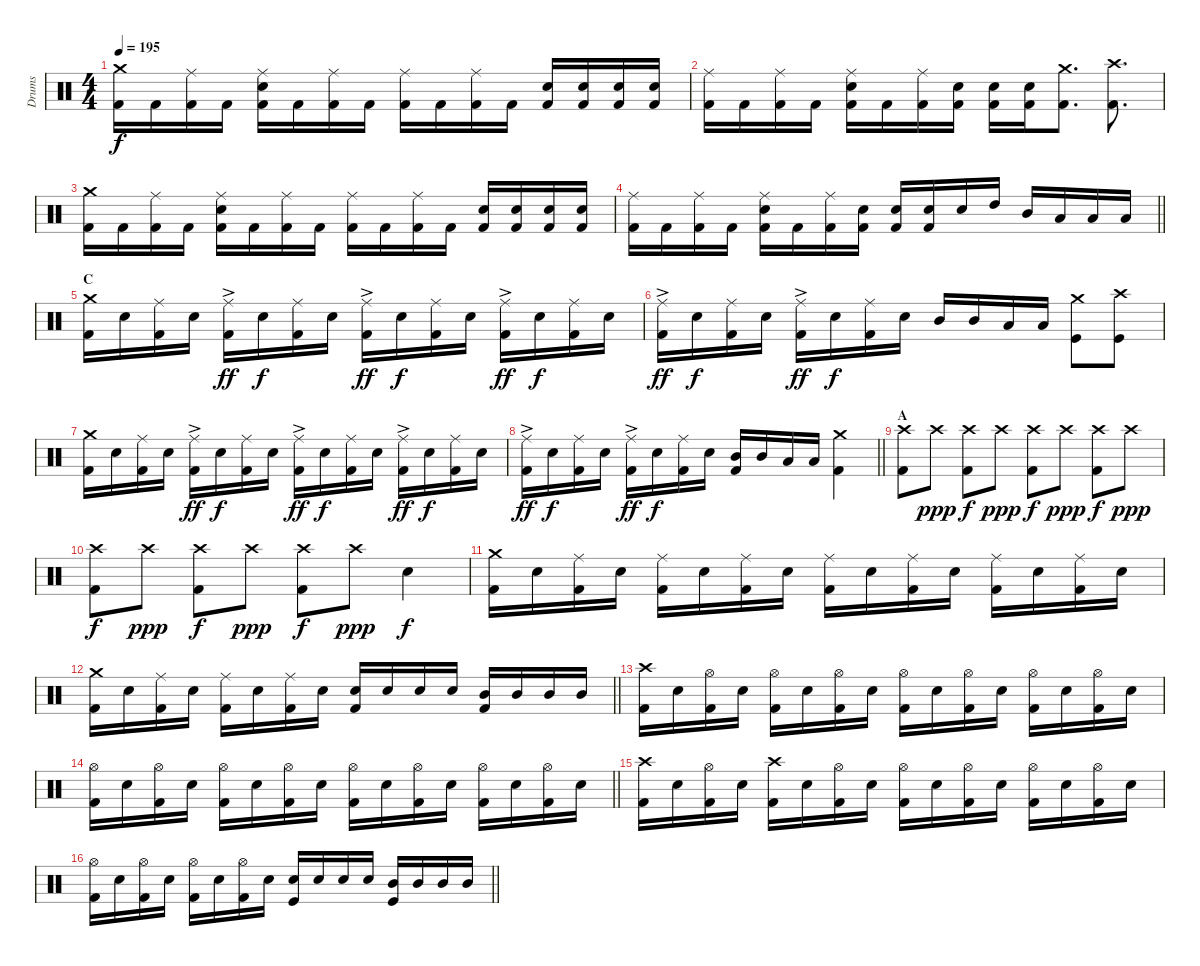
\track ("Drums" "Drums") {instrument percussion}
\staff {score}
\articulation defaults
\ts (4 4)
\tempo 195
\clef neutral
\ks c
("Crash medium (hit)" "Kick (hit) 2").16{dy f} "Kick (hit) 2".16 ("Ride (middle)" "Kick (hit) 2").16 "Kick (hit) 2".16 ("Ride (middle)" "Snare (hit) 2" "Kick (hit) 2").16 "Kick (hit) 2".16 ("Ride (middle)" "Kick (hit) 2").16 "Kick (hit) 2".16 ("Ride (middle)" "Kick (hit) 2").16 "Kick (hit) 2".16 ("Ride (middle)" "Kick (hit) 2").16 "Kick (hit) 2".16 ("Snare (hit) 2" "Kick (hit) 2").16 ("Snare (hit) 2" "Kick (hit) 2").16 ("Snare (hit) 2" "Kick (hit) 2").16 ("Snare (hit) 2" "Kick (hit) 2").16 |
("Ride (middle)" "Kick (hit) 2").16 "Kick (hit) 2".16 ("Ride (middle)" "Kick (hit) 2").16 "Kick (hit) 2".16 ("Ride (middle)" "Snare (hit) 2" "Kick (hit) 2").16 "Kick (hit) 2".16 ("Ride (middle)" "Kick (hit) 2").16 ("Snare (hit) 2" "Kick (hit) 2").16 ("Snare (hit) 2" "Kick (hit) 2").16 ("Snare (hit) 2" "Kick (hit) 2").16 ("Crash medium (hit)" "Kick (hit) 2").8{d} ("Crash high (hit)" "Kick (hit) 2").8{d} |
("Crash medium (hit)" "Kick (hit) 2").16 "Kick (hit) 2".16 ("Ride (middle)" "Kick (hit) 2").16 "Kick (hit) 2".16 ("Ride (middle)" "Snare (hit) 2" "Kick (hit) 2").16 "Kick (hit) 2".16 ("Ride (middle)" "Kick (hit) 2").16 "Kick (hit) 2".16 ("Ride (middle)" "Kick (hit) 2").16 "Kick (hit) 2".16 ("Ride (middle)" "Kick (hit) 2").16 "Kick (hit) 2".16 ("Snare (hit) 2" "Kick (hit) 2").16 ("Snare (hit) 2" "Kick (hit) 2").16 ("Snare (hit) 2" "Kick (hit) 2").16 ("Snare (hit) 2" "Kick (hit) 2").16 |
\barLineRight lightlight
("Ride (middle)" "Kick (hit) 2").16 "Kick (hit) 2".16 ("Ride (middle)" "Kick (hit) 2").16 "Kick (hit) 2".16 ("Ride (middle)" "Snare (hit) 2" "Kick (hit) 2").16 "Kick (hit) 2".16 ("Ride (middle)" "Kick (hit) 2").16 ("Snare (hit) 2" "Kick (hit) 2").16 ("Snare (hit) 2" "Kick (hit) 2").16 ("Snare (hit) 2" "Kick (hit) 2").16 "Snare (hit) 2".16 "High Tom (hit)".16 "Mid Tom (hit)".16 "Low Tom (hit)".16 "Low Tom (hit)".16 "Low Tom (hit)".16 |
\section ("" "C")
("Crash medium (hit)" "Kick (hit) 2").16 "Snare (hit) 2".16 ("Ride (middle)" "Kick (hit) 2").16 "Snare (hit) 2".16 ("Ride (middle)"{ac} "Kick (hit) 2").16{dy ff} "Snare (hit) 2".16{dy f} ("Ride (middle)" "Kick (hit) 2").16 "Snare (hit) 2".16 ("Ride (middle)"{ac} "Kick (hit) 2").16{dy ff} "Snare (hit) 2".16{dy f} ("Ride (middle)" "Kick (hit) 2").16 "Snare (hit) 2".16 ("Ride (middle)"{ac} "Kick (hit) 2").16{dy ff} "Snare (hit) 2".16{dy f} ("Ride (middle)" "Kick (hit) 2").16 "Snare (hit) 2".16 |
("Ride (middle)"{ac} "Kick (hit) 2").16{dy ff} "Snare (hit) 2".16{dy f} ("Ride (middle)" "Kick (hit) 2").16 "Snare (hit) 2".16 ("Ride (middle)"{ac} "Kick (hit) 2").16{dy ff} "Snare (hit) 2".16{dy f} ("Ride (middle)" "Kick (hit) 2").16 "Snare (hit) 2".16 "Mid Tom (hit)".16 "Mid Tom (hit)".16 "Low Tom (hit)".16 "Low Tom (hit)".16 ("Crash medium (hit)" "Kick (hit)").8 ("Crash high (hit)" "Kick (hit)").8 |
("Crash medium (hit)" "Kick (hit) 2").16 "Snare (hit) 2".16 ("Ride (middle)" "Kick (hit) 2").16 "Snare (hit) 2".16 ("Ride (middle)"{ac} "Kick (hit) 2").16{dy ff} "Snare (hit) 2".16{dy f} ("Ride (middle)" "Kick (hit) 2").16 "Snare (hit) 2".16 ("Ride (middle)"{ac} "Kick (hit) 2").16{dy ff} "Snare (hit) 2".16{dy f} ("Ride (middle)" "Kick (hit) 2").16 "Snare (hit) 2".16 ("Ride (middle)"{ac} "Kick (hit) 2").16{dy ff} "Snare (hit) 2".16{dy f} ("Ride (middle)" "Kick (hit) 2").16 "Snare (hit) 2".16 |
\barLineRight lightlight
("Ride (middle)"{ac} "Kick (hit) 2").16{dy ff} "Snare (hit) 2".16{dy f} ("Ride (middle)" "Kick (hit) 2").16 "Snare (hit) 2".16 ("Ride (middle)"{ac} "Kick (hit) 2").16{dy ff} "Snare (hit) 2".16{dy f} ("Ride (middle)" "Kick (hit) 2").16 "Snare (hit) 2".16 ("Mid Tom (hit)" "Kick (hit) 2").16 "Mid Tom (hit)".16 "Low Tom (hit)".16 "Low Tom (hit)".16 ("Crash medium (hit)" "Kick (hit) 2").4 |
\section ("" "A")
("Crash high (hit)" "Kick (hit) 2").8 "Crash high (hit)".8{dy ppp} ("Crash high (hit)" "Kick (hit) 2").8{dy f} "Crash high (hit)".8{dy ppp} ("Crash high (hit)" "Kick (hit) 2").8{dy f} "Crash high (hit)".8{dy ppp} ("Crash high (hit)" "Kick (hit) 2").8{dy f} "Crash high (hit)".8{dy ppp} |
("Crash high (hit)" "Kick (hit) 2").8{dy f} "Crash high (hit)".8{dy ppp} ("Crash high (hit)" "Kick (hit) 2").8{dy f} "Crash high (hit)".8{dy ppp} ("Crash high (hit)" "Kick (hit) 2").8{dy f} "Crash high (hit)".8{dy ppp} "Snare (hit) 2".4{dy f} |
("Crash medium (hit)" "Kick (hit) 2").16 "Snare (hit) 2".16 ("Ride (middle)" "Kick (hit) 2").16 "Snare (hit) 2".16 ("Ride (middle)" "Kick (hit) 2").16 "Snare (hit) 2".16 ("Ride (middle)" "Kick (hit) 2").16 "Snare (hit) 2".16 ("Ride (middle)" "Kick (hit) 2").16 "Snare (hit) 2".16 ("Ride (middle)" "Kick (hit) 2").16 "Snare (hit) 2".16 ("Ride (middle)" "Kick (hit) 2").16 "Snare (hit) 2".16 ("Ride (middle)" "Kick (hit) 2").16 "Snare (hit) 2".16 |
\barLineRight lightlight
("Crash medium (hit)" "Kick (hit) 2").16 "Snare (hit) 2".16 ("Ride (middle)" "Kick (hit) 2").16 "Snare (hit) 2".16 ("Ride (middle)" "Kick (hit) 2").16 "Snare (hit) 2".16 ("Ride (middle)" "Kick (hit) 2").16 "Snare (hit) 2".16 ("Snare (hit) 2" "Kick (hit) 2").16 "Snare (hit) 2".16 "Snare (hit) 2".16 "Snare (hit) 2".16 ("Mid Tom (hit)" "Kick (hit) 2").16 "Mid Tom (hit)".16 "Mid Tom (hit)".16 "Mid Tom (hit)".16 |
("Crash high (hit)" "Kick (hit) 2").16 "Snare (hit) 2".16 ("Hi-Hat (open)" "Kick (hit) 2").16 "Snare (hit) 2".16 ("Hi-Hat (open)" "Kick (hit) 2").16 "Snare (hit) 2".16 ("Hi-Hat (open)" "Kick (hit) 2").16 "Snare (hit) 2".16 ("Hi-Hat (open)" "Kick (hit) 2").16 "Snare (hit) 2".16 ("Hi-Hat (open)" "Kick (hit) 2").16 "Snare (hit) 2".16 ("Hi-Hat (open)" "Kick (hit) 2").16 "Snare (hit) 2".16 ("Hi-Hat (open)" "Kick (hit) 2").16 "Snare (hit) 2".16 |
\barLineRight lightlight
("Hi-Hat (open)" "Kick (hit) 2").16 "Snare (hit) 2".16 ("Hi-Hat (open)" "Kick (hit) 2").16 "Snare (hit) 2".16 ("Hi-Hat (open)" "Kick (hit) 2").16 "Snare (hit) 2".16 ("Hi-Hat (open)" "Kick (hit) 2").16 "Snare (hit) 2".16 ("Hi-Hat (open)" "Kick (hit) 2").16 "Snare (hit) 2".16 ("Hi-Hat (open)" "Kick (hit) 2").16 "Snare (hit) 2".16 ("Hi-Hat (open)" "Kick (hit) 2").16 "Snare (hit) 2".16 ("Hi-Hat (open)" "Kick (hit) 2").16 "Snare (hit) 2".16 |
("Crash high (hit)" "Kick (hit) 2").16 "Snare (hit) 2".16 ("Hi-Hat (open)" "Kick (hit) 2").16 "Snare (hit) 2".16 ("Crash high (hit)" "Kick (hit) 2").16 "Snare (hit) 2".16 ("Hi-Hat (open)" "Kick (hit) 2").16 "Snare (hit) 2".16 ("Hi-Hat (open)" "Kick (hit) 2").16 "Snare (hit) 2".16 ("Hi-Hat (open)" "Kick (hit) 2").16 "Snare (hit) 2".16 ("Hi-Hat (open)" "Kick (hit) 2").16 "Snare (hit) 2".16 ("Hi-Hat (open)" "Kick (hit) 2").16 "Snare (hit) 2".16 |
\barLineRight lightlight
("Hi-Hat (open)" "Kick (hit) 2").16 "Snare (hit) 2".16 ("Hi-Hat (open)" "Kick (hit) 2").16 "Snare (hit) 2".16 ("Hi-Hat (open)" "Kick (hit) 2").16 "Snare (hit) 2".16 ("Hi-Hat (open)" "Kick (hit) 2").16 "Snare (hit) 2".16 ("Snare (hit) 2" "Kick (hit)").16 "Snare (hit) 2".16 "Snare (hit) 2".16 "Snare (hit) 2".16 ("Mid Tom (hit)" "Kick (hit)").16 "Mid Tom (hit)".16 "Mid Tom (hit)".16 "Mid Tom (hit)".16
